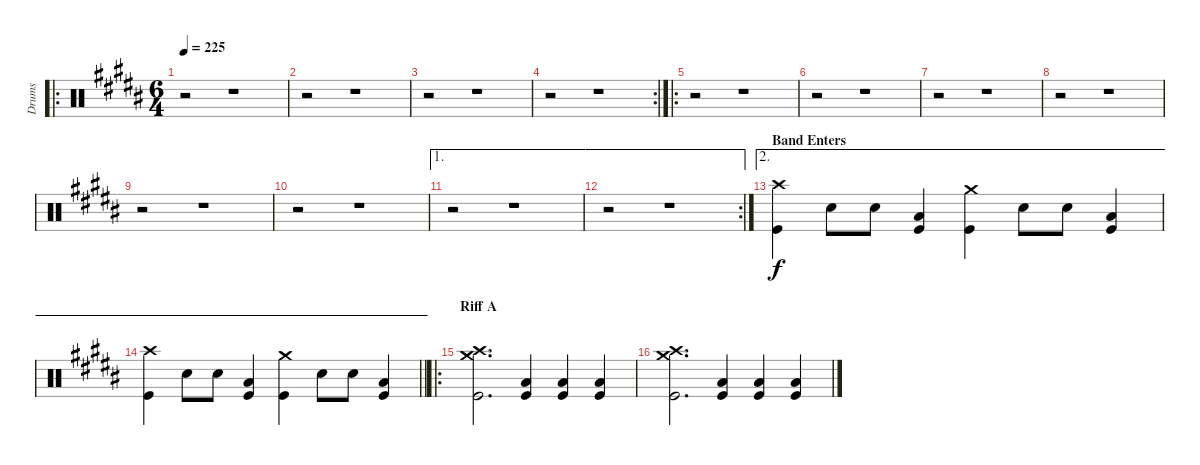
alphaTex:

\track ("Drums" "Drums") {instrument percussion}
\staff {score}
\articulation defaults
\ro
\ts (6 4)
\tempo 225
\clef neutral
\ks b
r.2{dy f} r.1 |
r.2 r.1 |
r.2 r.1 |
\rc 2
r.2 r.1 |
\ro
r.2 r.1 |
r.2 r.1 |
r.2 r.1 |
r.2 r.1 |
r.2 r.1 |
r.2 r.1 |
\ae 1
r.2 r.1 |
\ae 1
\rc 2
r.2 r.1 |
\ae 2
\section ("" "Band Enters")
("Crash high (hit)" "Kick (hit)").4 "Snare (hit) 2".8 "Snare (hit) 2".8 ("Low Floor Tom (hit)" "Kick (hit)").4 ("Crash medium (hit)" "Kick (hit)").4 "Snare (hit) 2".8 "Snare (hit) 2".8 ("Low Floor Tom (hit)" "Kick (hit)").4 |
\ae 2
\barLineRight lightlight
("Crash high (hit)" "Kick (hit)").4 "Snare (hit) 2".8 "Snare (hit) 2".8 ("Low Floor Tom (hit)" "Kick (hit)").4 ("Crash medium (hit)" "Kick (hit)").4 "Snare (hit) 2".8 "Snare (hit) 2".8 ("Low Floor Tom (hit)" "Kick (hit)").4 |
\ro
\section ("" "Riff A")
("Crash high (hit)" "Crash medium (hit)" "Kick (hit)").2{d} ("Low Floor Tom (hit)" "Kick (hit)").4 ("Low Floor Tom (hit)" "Kick (hit)").4 ("Low Floor Tom (hit)" "Kick (hit)").4 |
("Crash high (hit)" "Crash medium (hit)" "Kick (hit)").2{d} ("Low Floor Tom (hit)" "Kick (hit)").4 ("Low Floor Tom (hit)" "Kick (hit)").4 ("Low Floor Tom (hit)" "Kick (hit)").4
